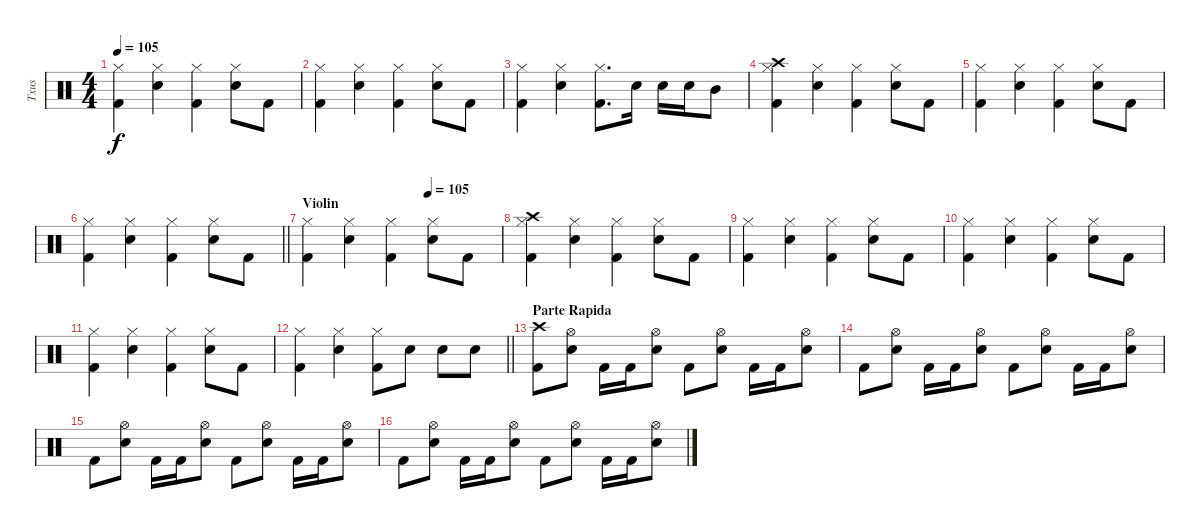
\track ("Txus" "Txus") {instrument percussion}
\staff {score}
\articulation defaults
\ts (4 4)
\tempo 105
\clef neutral
\ks c
("Kick (hit) 2" "Hi-Hat (closed)").4{dy f} ("Electric Snare (hit)" "Hi-Hat (closed)").4 ("Kick (hit) 2" "Hi-Hat (closed)").4 ("Electric Snare (hit)" "Hi-Hat (closed)").8 "Kick (hit) 2".8 |
("Kick (hit) 2" "Hi-Hat (closed)").4 ("Electric Snare (hit)" "Hi-Hat (closed)").4 ("Kick (hit) 2" "Hi-Hat (closed)").4 ("Electric Snare (hit)" "Hi-Hat (closed)").8 "Kick (hit) 2".8 |
("Kick (hit) 2" "Hi-Hat (closed)").4 ("Electric Snare (hit)" "Hi-Hat (closed)").4 ("Kick (hit) 2" "Hi-Hat (closed)").8{d} "Electric Snare (hit)".16 "Electric Snare (hit)".16 "Electric Snare (hit)".16 "Mid Tom (hit)".8 |
("Kick (hit) 2" "Hi-Hat (closed)" "Crash high (hit)").4 ("Electric Snare (hit)" "Hi-Hat (closed)").4 ("Kick (hit) 2" "Hi-Hat (closed)").4 ("Electric Snare (hit)" "Hi-Hat (closed)").8 "Kick (hit) 2".8 |
("Kick (hit) 2" "Hi-Hat (closed)").4 ("Electric Snare (hit)" "Hi-Hat (closed)").4 ("Kick (hit) 2" "Hi-Hat (closed)").4 ("Electric Snare (hit)" "Hi-Hat (closed)").8 "Kick (hit) 2".8 |
\barLineRight lightlight
("Kick (hit) 2" "Hi-Hat (closed)").4 ("Electric Snare (hit)" "Hi-Hat (closed)").4 ("Kick (hit) 2" "Hi-Hat (closed)").4 ("Electric Snare (hit)" "Hi-Hat (closed)").8 "Kick (hit) 2".8 |
\section ("" "Violin")
\tempo (105 0.625)
("Kick (hit) 2" "Hi-Hat (closed)").4 ("Electric Snare (hit)" "Hi-Hat (closed)").4 ("Kick (hit) 2" "Hi-Hat (closed)").4 ("Electric Snare (hit)" "Hi-Hat (closed)").8 "Kick (hit) 2".8 |
("Kick (hit) 2" "Hi-Hat (closed)" "Crash high (hit)").4 ("Electric Snare (hit)" "Hi-Hat (closed)").4 ("Kick (hit) 2" "Hi-Hat (closed)").4 ("Electric Snare (hit)" "Hi-Hat (closed)").8 "Kick (hit) 2".8 |
("Kick (hit) 2" "Hi-Hat (closed)").4 ("Electric Snare (hit)" "Hi-Hat (closed)").4 ("Kick (hit) 2" "Hi-Hat (closed)").4 ("Electric Snare (hit)" "Hi-Hat (closed)").8 "Kick (hit) 2".8 |
("Kick (hit) 2" "Hi-Hat (closed)").4 ("Electric Snare (hit)" "Hi-Hat (closed)").4 ("Kick (hit) 2" "Hi-Hat (closed)").4 ("Electric Snare (hit)" "Hi-Hat (closed)").8 "Kick (hit) 2".8 |
("Kick (hit) 2" "Hi-Hat (closed)").4 ("Electric Snare (hit)" "Hi-Hat (closed)").4 ("Kick (hit) 2" "Hi-Hat (closed)").4 ("Electric Snare (hit)" "Hi-Hat (closed)").8 "Kick (hit) 2".8 |
\barLineRight lightlight
("Kick (hit) 2" "Hi-Hat (closed)").4 ("Electric Snare (hit)" "Hi-Hat (closed)").4 ("Kick (hit) 2" "Hi-Hat (closed)").8 "Electric Snare (hit)".8 "Electric Snare (hit)".8 "Electric Snare (hit)".8 |
\section ("" "Parte Rapida")
("Kick (hit) 2" "Crash high (hit)").8 ("Electric Snare (hit)" "Hi-Hat (open)").8 "Kick (hit) 2".16 "Kick (hit) 2".16 ("Electric Snare (hit)" "Hi-Hat (open)").8 "Kick (hit) 2".8 ("Electric Snare (hit)" "Hi-Hat (open)").8 "Kick (hit) 2".16 "Kick (hit) 2".16 ("Electric Snare (hit)" "Hi-Hat (open)").8 |
"Kick (hit) 2".8 ("Electric Snare (hit)" "Hi-Hat (open)").8 "Kick (hit) 2".16 "Kick (hit) 2".16 ("Electric Snare (hit)" "Hi-Hat (open)").8 "Kick (hit) 2".8 ("Electric Snare (hit)" "Hi-Hat (open)").8 "Kick (hit) 2".16 "Kick (hit) 2".16 ("Electric Snare (hit)" "Hi-Hat (open)").8 |
"Kick (hit) 2".8 ("Electric Snare (hit)" "Hi-Hat (open)").8 "Kick (hit) 2".16 "Kick (hit) 2".16 ("Electric Snare (hit)" "Hi-Hat (open)").8 "Kick (hit) 2".8 ("Electric Snare (hit)" "Hi-Hat (open)").8 "Kick (hit) 2".16 "Kick (hit) 2".16 ("Electric Snare (hit)" "Hi-Hat (open)").8 |
"Kick (hit) 2".8 ("Electric Snare (hit)" "Hi-Hat (open)").8 "Kick (hit) 2".16 "Kick (hit) 2".16 ("Electric Snare (hit)" "Hi-Hat (open)").8 "Kick (hit) 2".8 ("Electric Snare (hit)" "Hi-Hat (open)").8 "Kick (hit) 2".16 "Kick (hit) 2".16 ("Electric Snare (hit)" "Hi-Hat (open)").8
